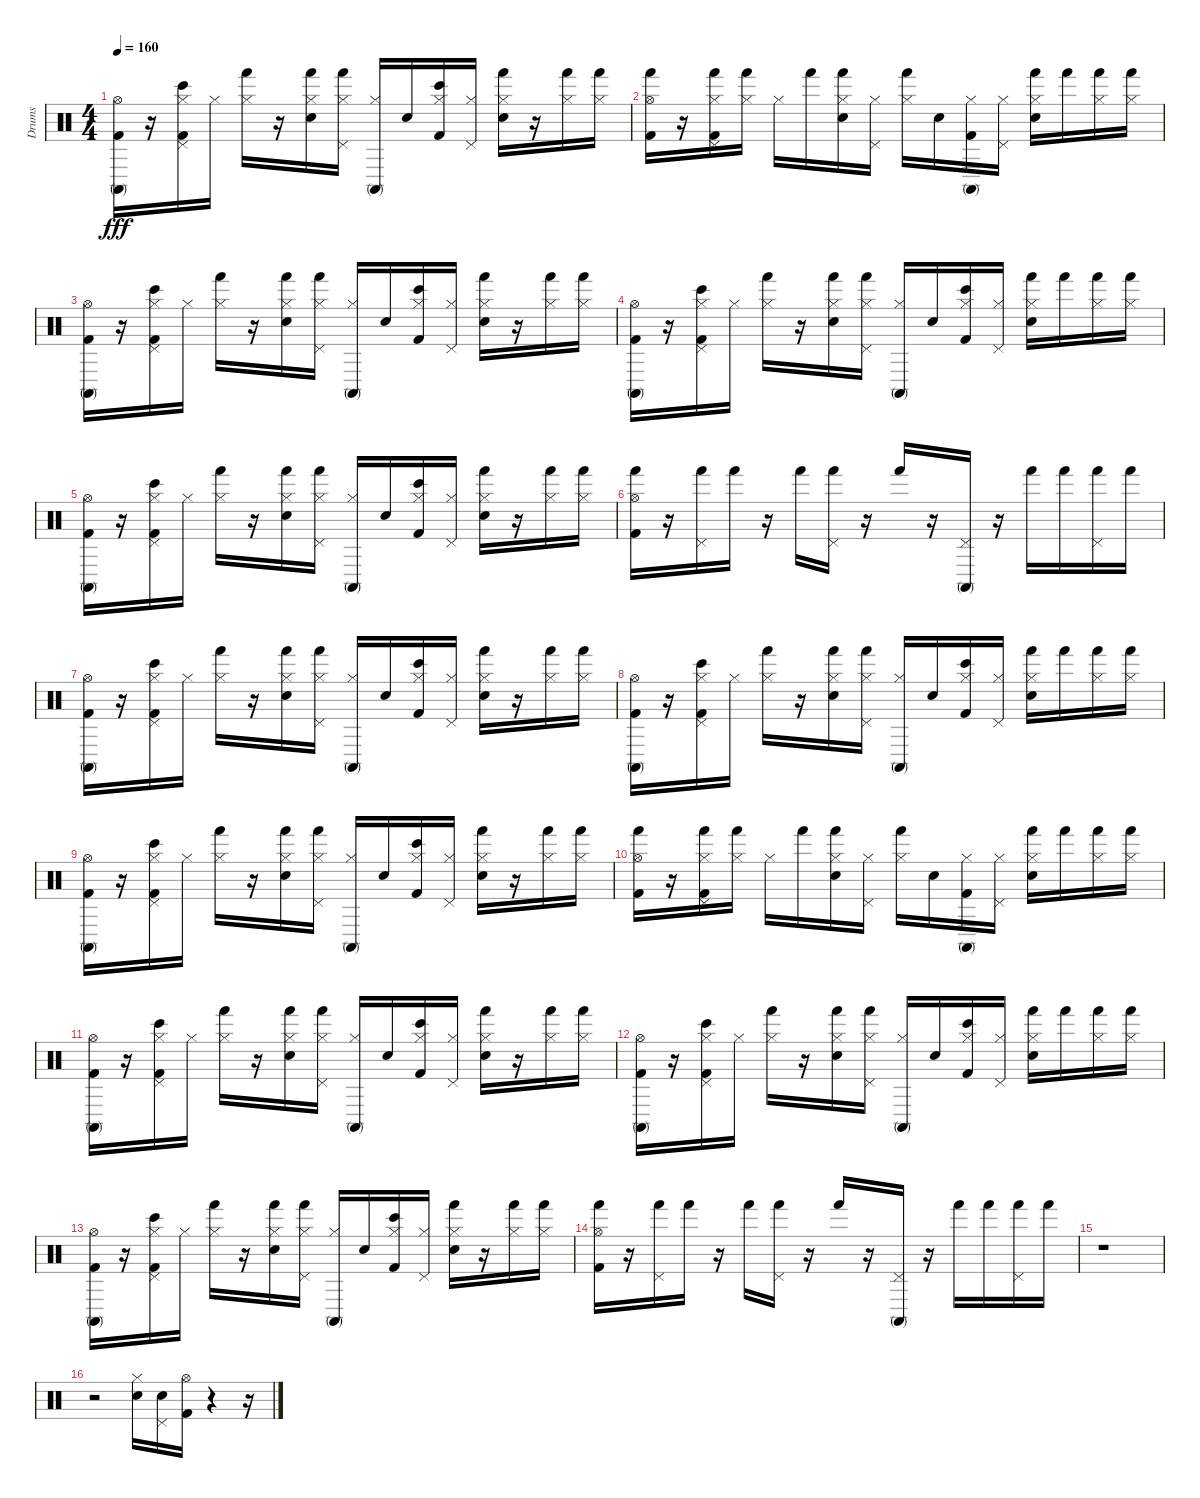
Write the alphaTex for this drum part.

\track ("Drums" "Drums") {instrument percussion}
\staff {score}
\articulation defaults
\ts (4 4)
\tempo 160
\clef neutral
\ks c
("Kick (hit) 2" "Conga high (mute)" "Hi-Hat (open)").16{dy fff} r.16 ("Kick (hit) 2" "Hi-Hat (closed)" "Pedal Hi-Hat (hit)" "Bongo High (hit)").16 "Hi-Hat (closed)".16 ("Hand (hit)" "Hi-Hat (closed)").16 r.16 ("Hand (hit)" "Hi-Hat (closed)" "Electric Snare (hit)").16 ("Pedal Hi-Hat (hit)" "Hand (hit)" "Hi-Hat (closed)").16 ("Hi-Hat (closed)" "Conga high (mute)").16 "Electric Snare (hit)".16 ("Bongo High (hit)" "Hi-Hat (closed)" "Kick (hit) 2").16 ("Hi-Hat (closed)" "Pedal Hi-Hat (hit)").16 ("Hand (hit)" "Electric Snare (hit)" "Hi-Hat (closed)").16 r.16 ("Hand (hit)" "Hi-Hat (closed)").16 ("Hi-Hat (closed)" "Hand (hit)").16 |
("Hi-Hat (open)" "Hand (hit)" "Kick (hit) 2").16 r.16 ("Hand (hit)" "Kick (hit) 2" "Hi-Hat (closed)" "Pedal Hi-Hat (hit)").16 ("Hand (hit)" "Hi-Hat (closed)").16 "Hi-Hat (closed)".16 "Hand (hit)".16 ("Hi-Hat (closed)" "Electric Snare (hit)" "Hand (hit)").16 ("Hi-Hat (closed)" "Pedal Hi-Hat (hit)").16 ("Hi-Hat (closed)" "Hand (hit)").16 "Electric Snare (hit)".16 ("Kick (hit) 2" "Conga high (mute)" "Hi-Hat (closed)").16 ("Hi-Hat (closed)" "Pedal Hi-Hat (hit)").16 ("Electric Snare (hit)" "Hand (hit)" "Hi-Hat (closed)").16 "Hand (hit)".16 ("Hi-Hat (closed)" "Hand (hit)").16 ("Hi-Hat (closed)" "Hand (hit)").16 |
("Hi-Hat (open)" "Kick (hit) 2" "Conga high (mute)").16 r.16 ("Bongo High (hit)" "Pedal Hi-Hat (hit)" "Hi-Hat (closed)" "Kick (hit) 2").16 "Hi-Hat (closed)".16 ("Hi-Hat (closed)" "Hand (hit)").16 r.16 ("Electric Snare (hit)" "Hand (hit)" "Hi-Hat (closed)").16 ("Pedal Hi-Hat (hit)" "Hi-Hat (closed)" "Hand (hit)").16 ("Hi-Hat (closed)" "Conga high (mute)").16 "Electric Snare (hit)".16 ("Hi-Hat (closed)" "Kick (hit) 2" "Bongo High (hit)").16 ("Hi-Hat (closed)" "Pedal Hi-Hat (hit)").16 ("Electric Snare (hit)" "Hand (hit)" "Hi-Hat (closed)").16 r.16 ("Hi-Hat (closed)" "Hand (hit)").16 ("Hand (hit)" "Hi-Hat (closed)").16 |
("Kick (hit) 2" "Conga high (mute)" "Hi-Hat (open)").16 r.16 ("Kick (hit) 2" "Pedal Hi-Hat (hit)" "Hi-Hat (closed)" "Bongo High (hit)").16 "Hi-Hat (closed)".16 ("Hand (hit)" "Hi-Hat (closed)").16 r.16 ("Hand (hit)" "Hi-Hat (closed)" "Electric Snare (hit)").16 ("Pedal Hi-Hat (hit)" "Hi-Hat (closed)" "Hand (hit)").16 ("Conga high (mute)" "Hi-Hat (closed)").16 "Electric Snare (hit)".16 ("Hi-Hat (closed)" "Bongo High (hit)" "Kick (hit) 2").16 ("Hi-Hat (closed)" "Pedal Hi-Hat (hit)").16 ("Hand (hit)" "Electric Snare (hit)" "Hi-Hat (closed)").16 "Hand (hit)".16 ("Hand (hit)" "Hi-Hat (closed)").16 ("Hand (hit)" "Hi-Hat (closed)").16 |
("Hi-Hat (open)" "Kick (hit) 2" "Conga high (mute)").16 r.16 ("Pedal Hi-Hat (hit)" "Bongo High (hit)" "Hi-Hat (closed)" "Kick (hit) 2").16 "Hi-Hat (closed)".16 ("Hand (hit)" "Hi-Hat (closed)").16 r.16 ("Hand (hit)" "Electric Snare (hit)" "Hi-Hat (closed)").16 ("Pedal Hi-Hat (hit)" "Hi-Hat (closed)" "Hand (hit)").16 ("Conga high (mute)" "Hi-Hat (closed)").16 "Electric Snare (hit)".16 ("Kick (hit) 2" "Bongo High (hit)" "Hi-Hat (closed)").16 ("Hi-Hat (closed)" "Pedal Hi-Hat (hit)").16 ("Electric Snare (hit)" "Hi-Hat (closed)" "Hand (hit)").16 r.16 ("Hi-Hat (closed)" "Hand (hit)").16 ("Hi-Hat (closed)" "Hand (hit)").16 |
("Kick (hit) 2" "Hand (hit)" "Hi-Hat (open)").16 r.16 ("Pedal Hi-Hat (hit)" "Hand (hit)").16 "Hand (hit)".16 r.16 "Hand (hit)".16 ("Hand (hit)" "Pedal Hi-Hat (hit)").16 r.16 "Hand (hit)".16 r.16 ("Pedal Hi-Hat (hit)" "Conga high (mute)").16 r.16 "Hand (hit)".16 "Hand (hit)".16 ("Pedal Hi-Hat (hit)" "Hand (hit)").16 "Hand (hit)".16 |
("Hi-Hat (open)" "Kick (hit) 2" "Conga high (mute)").16 r.16 ("Hi-Hat (closed)" "Pedal Hi-Hat (hit)" "Kick (hit) 2" "Bongo High (hit)").16 "Hi-Hat (closed)".16 ("Hand (hit)" "Hi-Hat (closed)").16 r.16 ("Hand (hit)" "Electric Snare (hit)" "Hi-Hat (closed)").16 ("Pedal Hi-Hat (hit)" "Hand (hit)" "Hi-Hat (closed)").16 ("Conga high (mute)" "Hi-Hat (closed)").16 "Electric Snare (hit)".16 ("Hi-Hat (closed)" "Bongo High (hit)" "Kick (hit) 2").16 ("Pedal Hi-Hat (hit)" "Hi-Hat (closed)").16 ("Hand (hit)" "Hi-Hat (closed)" "Electric Snare (hit)").16 r.16 ("Hi-Hat (closed)" "Hand (hit)").16 ("Hand (hit)" "Hi-Hat (closed)").16 |
("Hi-Hat (open)" "Conga high (mute)" "Kick (hit) 2").16 r.16 ("Pedal Hi-Hat (hit)" "Kick (hit) 2" "Hi-Hat (closed)" "Bongo High (hit)").16 "Hi-Hat (closed)".16 ("Hi-Hat (closed)" "Hand (hit)").16 r.16 ("Electric Snare (hit)" "Hi-Hat (closed)" "Hand (hit)").16 ("Hand (hit)" "Pedal Hi-Hat (hit)" "Hi-Hat (closed)").16 ("Hi-Hat (closed)" "Conga high (mute)").16 "Electric Snare (hit)".16 ("Kick (hit) 2" "Hi-Hat (closed)" "Bongo High (hit)").16 ("Hi-Hat (closed)" "Pedal Hi-Hat (hit)").16 ("Electric Snare (hit)" "Hand (hit)" "Hi-Hat (closed)").16 "Hand (hit)".16 ("Hand (hit)" "Hi-Hat (closed)").16 ("Hand (hit)" "Hi-Hat (closed)").16 |
("Conga high (mute)" "Hi-Hat (open)" "Kick (hit) 2").16 r.16 ("Pedal Hi-Hat (hit)" "Kick (hit) 2" "Bongo High (hit)" "Hi-Hat (closed)").16 "Hi-Hat (closed)".16 ("Hi-Hat (closed)" "Hand (hit)").16 r.16 ("Hi-Hat (closed)" "Electric Snare (hit)" "Hand (hit)").16 ("Hi-Hat (closed)" "Pedal Hi-Hat (hit)" "Hand (hit)").16 ("Hi-Hat (closed)" "Conga high (mute)").16 "Electric Snare (hit)".16 ("Kick (hit) 2" "Bongo High (hit)" "Hi-Hat (closed)").16 ("Pedal Hi-Hat (hit)" "Hi-Hat (closed)").16 ("Hi-Hat (closed)" "Electric Snare (hit)" "Hand (hit)").16 r.16 ("Hand (hit)" "Hi-Hat (closed)").16 ("Hand (hit)" "Hi-Hat (closed)").16 |
("Kick (hit) 2" "Hi-Hat (open)" "Hand (hit)").16 r.16 ("Kick (hit) 2" "Hi-Hat (closed)" "Hand (hit)" "Pedal Hi-Hat (hit)").16 ("Hi-Hat (closed)" "Hand (hit)").16 "Hi-Hat (closed)".16 "Hand (hit)".16 ("Hi-Hat (closed)" "Hand (hit)" "Electric Snare (hit)").16 ("Hi-Hat (closed)" "Pedal Hi-Hat (hit)").16 ("Hi-Hat (closed)" "Hand (hit)").16 "Electric Snare (hit)".16 ("Kick (hit) 2" "Hi-Hat (closed)" "Conga high (mute)").16 ("Hi-Hat (closed)" "Pedal Hi-Hat (hit)").16 ("Hand (hit)" "Hi-Hat (closed)" "Electric Snare (hit)").16 "Hand (hit)".16 ("Hi-Hat (closed)" "Hand (hit)").16 ("Hi-Hat (closed)" "Hand (hit)").16 |
("Kick (hit) 2" "Conga high (mute)" "Hi-Hat (open)").16 r.16 ("Bongo High (hit)" "Kick (hit) 2" "Pedal Hi-Hat (hit)" "Hi-Hat (closed)").16 "Hi-Hat (closed)".16 ("Hand (hit)" "Hi-Hat (closed)").16 r.16 ("Electric Snare (hit)" "Hi-Hat (closed)" "Hand (hit)").16 ("Hi-Hat (closed)" "Pedal Hi-Hat (hit)" "Hand (hit)").16 ("Hi-Hat (closed)" "Conga high (mute)").16 "Electric Snare (hit)".16 ("Kick (hit) 2" "Bongo High (hit)" "Hi-Hat (closed)").16 ("Hi-Hat (closed)" "Pedal Hi-Hat (hit)").16 ("Electric Snare (hit)" "Hi-Hat (closed)" "Hand (hit)").16 r.16 ("Hi-Hat (closed)" "Hand (hit)").16 ("Hi-Hat (closed)" "Hand (hit)").16 |
("Hi-Hat (open)" "Kick (hit) 2" "Conga high (mute)").16 r.16 ("Pedal Hi-Hat (hit)" "Hi-Hat (closed)" "Kick (hit) 2" "Bongo High (hit)").16 "Hi-Hat (closed)".16 ("Hand (hit)" "Hi-Hat (closed)").16 r.16 ("Hi-Hat (closed)" "Electric Snare (hit)" "Hand (hit)").16 ("Hi-Hat (closed)" "Hand (hit)" "Pedal Hi-Hat (hit)").16 ("Hi-Hat (closed)" "Conga high (mute)").16 "Electric Snare (hit)".16 ("Hi-Hat (closed)" "Kick (hit) 2" "Bongo High (hit)").16 ("Pedal Hi-Hat (hit)" "Hi-Hat (closed)").16 ("Electric Snare (hit)" "Hi-Hat (closed)" "Hand (hit)").16 "Hand (hit)".16 ("Hand (hit)" "Hi-Hat (closed)").16 ("Hand (hit)" "Hi-Hat (closed)").16 |
("Conga high (mute)" "Hi-Hat (open)" "Kick (hit) 2").16 r.16 ("Hi-Hat (closed)" "Kick (hit) 2" "Bongo High (hit)" "Pedal Hi-Hat (hit)").16 "Hi-Hat (closed)".16 ("Hi-Hat (closed)" "Hand (hit)").16 r.16 ("Hand (hit)" "Hi-Hat (closed)" "Electric Snare (hit)").16 ("Hi-Hat (closed)" "Pedal Hi-Hat (hit)" "Hand (hit)").16 ("Conga high (mute)" "Hi-Hat (closed)").16 "Electric Snare (hit)".16 ("Hi-Hat (closed)" "Bongo High (hit)" "Kick (hit) 2").16 ("Hi-Hat (closed)" "Pedal Hi-Hat (hit)").16 ("Hi-Hat (closed)" "Hand (hit)" "Electric Snare (hit)").16 r.16 ("Hand (hit)" "Hi-Hat (closed)").16 ("Hand (hit)" "Hi-Hat (closed)").16 |
("Hi-Hat (open)" "Hand (hit)" "Kick (hit) 2").16 r.16 ("Hand (hit)" "Pedal Hi-Hat (hit)").16 "Hand (hit)".16 r.16 "Hand (hit)".16 ("Pedal Hi-Hat (hit)" "Hand (hit)").16 r.16 "Hand (hit)".16 r.16 ("Pedal Hi-Hat (hit)" "Conga high (mute)").16 r.16 "Hand (hit)".16 "Hand (hit)".16 ("Pedal Hi-Hat (hit)" "Hand (hit)").16 "Hand (hit)".16 |
r.1 |
r.2 ("Hi-Hat (closed)" "Electric Snare (hit)").16 ("Electric Snare (hit)" "Pedal Hi-Hat (hit)").16 ("Kick (hit) 2" "Hi-Hat (open)").16 r.4 r.16
